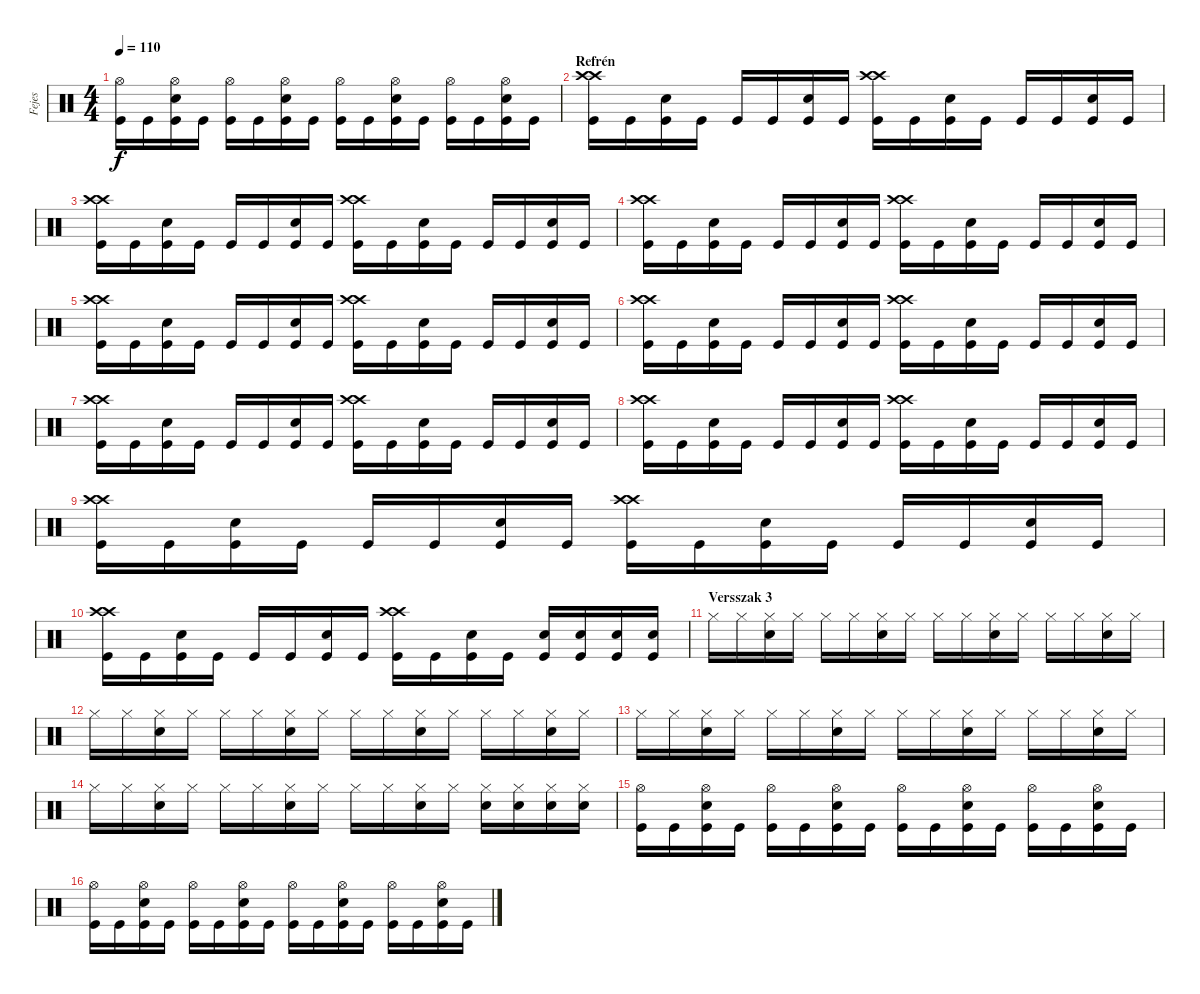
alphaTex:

\track ("Fejes" "Fejes") {instrument percussion}
\staff {score}
\articulation defaults
\ts (4 4)
\tempo 110
\clef neutral
\ks c
("Hi-Hat (open)" "Kick (hit)").16{dy f} "Kick (hit)".16 ("Hi-Hat (open)" "Snare (hit) 2" "Kick (hit)").16 "Kick (hit)".16 ("Hi-Hat (open)" "Kick (hit)").16 "Kick (hit)".16 ("Hi-Hat (open)" "Snare (hit) 2" "Kick (hit)").16 "Kick (hit)".16 ("Hi-Hat (open)" "Kick (hit)").16 "Kick (hit)".16 ("Hi-Hat (open)" "Snare (hit) 2" "Kick (hit)").16 "Kick (hit)".16 ("Hi-Hat (open)" "Kick (hit)").16 "Kick (hit)".16 ("Hi-Hat (open)" "Snare (hit) 2" "Kick (hit)").16 "Kick (hit)".16 |
\section ("" "Refrén")
("Crash high (hit)" "Crash high (hit)" "Kick (hit)").16 "Kick (hit)".16 ("Snare (hit) 2" "Kick (hit)").16 "Kick (hit)".16 "Kick (hit)".16 "Kick (hit)".16 ("Snare (hit) 2" "Kick (hit)").16 "Kick (hit)".16 ("Crash high (hit)" "Crash high (hit)" "Kick (hit)").16 "Kick (hit)".16 ("Snare (hit) 2" "Kick (hit)").16 "Kick (hit)".16 "Kick (hit)".16 "Kick (hit)".16 ("Snare (hit) 2" "Kick (hit)").16 "Kick (hit)".16 |
("Crash high (hit)" "Crash high (hit)" "Kick (hit)").16 "Kick (hit)".16 ("Snare (hit) 2" "Kick (hit)").16 "Kick (hit)".16 "Kick (hit)".16 "Kick (hit)".16 ("Snare (hit) 2" "Kick (hit)").16 "Kick (hit)".16 ("Crash high (hit)" "Crash high (hit)" "Kick (hit)").16 "Kick (hit)".16 ("Snare (hit) 2" "Kick (hit)").16 "Kick (hit)".16 "Kick (hit)".16 "Kick (hit)".16 ("Snare (hit) 2" "Kick (hit)").16 "Kick (hit)".16 |
("Crash high (hit)" "Crash high (hit)" "Kick (hit)").16 "Kick (hit)".16 ("Snare (hit) 2" "Kick (hit)").16 "Kick (hit)".16 "Kick (hit)".16 "Kick (hit)".16 ("Snare (hit) 2" "Kick (hit)").16 "Kick (hit)".16 ("Crash high (hit)" "Crash high (hit)" "Kick (hit)").16 "Kick (hit)".16 ("Snare (hit) 2" "Kick (hit)").16 "Kick (hit)".16 "Kick (hit)".16 "Kick (hit)".16 ("Snare (hit) 2" "Kick (hit)").16 "Kick (hit)".16 |
("Crash high (hit)" "Crash high (hit)" "Kick (hit)").16 "Kick (hit)".16 ("Snare (hit) 2" "Kick (hit)").16 "Kick (hit)".16 "Kick (hit)".16 "Kick (hit)".16 ("Snare (hit) 2" "Kick (hit)").16 "Kick (hit)".16 ("Crash high (hit)" "Crash high (hit)" "Kick (hit)").16 "Kick (hit)".16 ("Snare (hit) 2" "Kick (hit)").16 "Kick (hit)".16 "Kick (hit)".16 "Kick (hit)".16 ("Snare (hit) 2" "Kick (hit)").16 "Kick (hit)".16 |
("Crash high (hit)" "Crash high (hit)" "Kick (hit)").16 "Kick (hit)".16 ("Snare (hit) 2" "Kick (hit)").16 "Kick (hit)".16 "Kick (hit)".16 "Kick (hit)".16 ("Snare (hit) 2" "Kick (hit)").16 "Kick (hit)".16 ("Crash high (hit)" "Crash high (hit)" "Kick (hit)").16 "Kick (hit)".16 ("Snare (hit) 2" "Kick (hit)").16 "Kick (hit)".16 "Kick (hit)".16 "Kick (hit)".16 ("Snare (hit) 2" "Kick (hit)").16 "Kick (hit)".16 |
("Crash high (hit)" "Crash high (hit)" "Kick (hit)").16 "Kick (hit)".16 ("Snare (hit) 2" "Kick (hit)").16 "Kick (hit)".16 "Kick (hit)".16 "Kick (hit)".16 ("Snare (hit) 2" "Kick (hit)").16 "Kick (hit)".16 ("Crash high (hit)" "Crash high (hit)" "Kick (hit)").16 "Kick (hit)".16 ("Snare (hit) 2" "Kick (hit)").16 "Kick (hit)".16 "Kick (hit)".16 "Kick (hit)".16 ("Snare (hit) 2" "Kick (hit)").16 "Kick (hit)".16 |
("Crash high (hit)" "Crash high (hit)" "Kick (hit)").16 "Kick (hit)".16 ("Snare (hit) 2" "Kick (hit)").16 "Kick (hit)".16 "Kick (hit)".16 "Kick (hit)".16 ("Snare (hit) 2" "Kick (hit)").16 "Kick (hit)".16 ("Crash high (hit)" "Crash high (hit)" "Kick (hit)").16 "Kick (hit)".16 ("Snare (hit) 2" "Kick (hit)").16 "Kick (hit)".16 "Kick (hit)".16 "Kick (hit)".16 ("Snare (hit) 2" "Kick (hit)").16 "Kick (hit)".16 |
("Crash high (hit)" "Crash high (hit)" "Kick (hit)").16 "Kick (hit)".16 ("Snare (hit) 2" "Kick (hit)").16 "Kick (hit)".16 "Kick (hit)".16 "Kick (hit)".16 ("Snare (hit) 2" "Kick (hit)").16 "Kick (hit)".16 ("Crash high (hit)" "Crash high (hit)" "Kick (hit)").16 "Kick (hit)".16 ("Snare (hit) 2" "Kick (hit)").16 "Kick (hit)".16 "Kick (hit)".16 "Kick (hit)".16 ("Snare (hit) 2" "Kick (hit)").16 "Kick (hit)".16 |
("Crash high (hit)" "Crash high (hit)" "Kick (hit)").16 "Kick (hit)".16 ("Snare (hit) 2" "Kick (hit)").16 "Kick (hit)".16 "Kick (hit)".16 "Kick (hit)".16 ("Snare (hit) 2" "Kick (hit)").16 "Kick (hit)".16 ("Crash high (hit)" "Crash high (hit)" "Kick (hit)").16 "Kick (hit)".16 ("Snare (hit) 2" "Kick (hit)").16 "Kick (hit)".16 ("Snare (hit) 2" "Kick (hit)").16 ("Snare (hit) 2" "Kick (hit)").16 ("Snare (hit) 2" "Kick (hit)").16 ("Snare (hit) 2" "Kick (hit)").16 |
\section ("" "Versszak 3")
"Hi-Hat (closed)".16 "Hi-Hat (closed)".16 ("Hi-Hat (closed)" "Snare (hit) 2").16 "Hi-Hat (closed)".16 "Hi-Hat (closed)".16 "Hi-Hat (closed)".16 ("Hi-Hat (closed)" "Snare (hit) 2").16 "Hi-Hat (closed)".16 "Hi-Hat (closed)".16 "Hi-Hat (closed)".16 ("Hi-Hat (closed)" "Snare (hit) 2").16 "Hi-Hat (closed)".16 "Hi-Hat (closed)".16 "Hi-Hat (closed)".16 ("Hi-Hat (closed)" "Snare (hit) 2").16 "Hi-Hat (closed)".16 |
"Hi-Hat (closed)".16 "Hi-Hat (closed)".16 ("Hi-Hat (closed)" "Snare (hit) 2").16 "Hi-Hat (closed)".16 "Hi-Hat (closed)".16 "Hi-Hat (closed)".16 ("Hi-Hat (closed)" "Snare (hit) 2").16 "Hi-Hat (closed)".16 "Hi-Hat (closed)".16 "Hi-Hat (closed)".16 ("Hi-Hat (closed)" "Snare (hit) 2").16 "Hi-Hat (closed)".16 "Hi-Hat (closed)".16 "Hi-Hat (closed)".16 ("Hi-Hat (closed)" "Snare (hit) 2").16 "Hi-Hat (closed)".16 |
"Hi-Hat (closed)".16 "Hi-Hat (closed)".16 ("Hi-Hat (closed)" "Snare (hit) 2").16 "Hi-Hat (closed)".16 "Hi-Hat (closed)".16 "Hi-Hat (closed)".16 ("Hi-Hat (closed)" "Snare (hit) 2").16 "Hi-Hat (closed)".16 "Hi-Hat (closed)".16 "Hi-Hat (closed)".16 ("Hi-Hat (closed)" "Snare (hit) 2").16 "Hi-Hat (closed)".16 "Hi-Hat (closed)".16 "Hi-Hat (closed)".16 ("Hi-Hat (closed)" "Snare (hit) 2").16 "Hi-Hat (closed)".16 |
"Hi-Hat (closed)".16 "Hi-Hat (closed)".16 ("Hi-Hat (closed)" "Snare (hit) 2").16 "Hi-Hat (closed)".16 "Hi-Hat (closed)".16 "Hi-Hat (closed)".16 ("Hi-Hat (closed)" "Snare (hit) 2").16 "Hi-Hat (closed)".16 "Hi-Hat (closed)".16 "Hi-Hat (closed)".16 ("Hi-Hat (closed)" "Snare (hit) 2").16 "Hi-Hat (closed)".16 ("Hi-Hat (closed)" "Snare (hit) 2").16 ("Hi-Hat (closed)" "Snare (hit) 2").16 ("Hi-Hat (closed)" "Snare (hit) 2").16 ("Hi-Hat (closed)" "Snare (hit) 2").16 |
("Hi-Hat (open)" "Kick (hit)").16 "Kick (hit)".16 ("Hi-Hat (open)" "Snare (hit) 2" "Kick (hit)").16 "Kick (hit)".16 ("Hi-Hat (open)" "Kick (hit)").16 "Kick (hit)".16 ("Hi-Hat (open)" "Snare (hit) 2" "Kick (hit)").16 "Kick (hit)".16 ("Hi-Hat (open)" "Kick (hit)").16 "Kick (hit)".16 ("Hi-Hat (open)" "Snare (hit) 2" "Kick (hit)").16 "Kick (hit)".16 ("Hi-Hat (open)" "Kick (hit)").16 "Kick (hit)".16 ("Hi-Hat (open)" "Snare (hit) 2" "Kick (hit)").16 "Kick (hit)".16 |
("Hi-Hat (open)" "Kick (hit)").16 "Kick (hit)".16 ("Hi-Hat (open)" "Snare (hit) 2" "Kick (hit)").16 "Kick (hit)".16 ("Hi-Hat (open)" "Kick (hit)").16 "Kick (hit)".16 ("Hi-Hat (open)" "Snare (hit) 2" "Kick (hit)").16 "Kick (hit)".16 ("Hi-Hat (open)" "Kick (hit)").16 "Kick (hit)".16 ("Hi-Hat (open)" "Snare (hit) 2" "Kick (hit)").16 "Kick (hit)".16 ("Hi-Hat (open)" "Kick (hit)").16 "Kick (hit)".16 ("Hi-Hat (open)" "Snare (hit) 2" "Kick (hit)").16 "Kick (hit)".16
